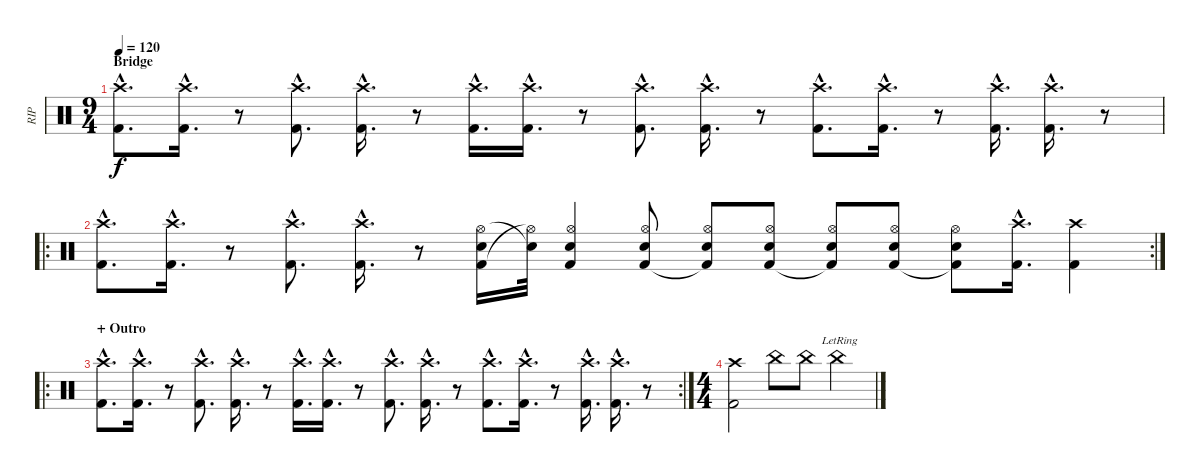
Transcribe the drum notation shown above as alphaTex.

\track ("RIP" "RIP") {instrument percussion}
\staff {score}
\articulation defaults
\ts (9 4)
\section ("" "Bridge")
\tempo 120
\clef neutral
\ks c
("Crash high (hit)"{hac} "Kick (hit) 2"{hac}).8{d dy f} ("Crash high (hit)"{hac} "Kick (hit) 2"{hac}).16{d} r.8 ("Crash high (hit)"{hac} "Kick (hit) 2"{hac}).8{d} ("Crash high (hit)"{hac} "Kick (hit) 2"{hac}).16{d} r.8 ("Crash high (hit)"{hac} "Kick (hit) 2"{hac}).16{d} ("Crash high (hit)"{hac} "Kick (hit) 2"{hac}).16{d} r.8 ("Crash high (hit)"{hac} "Kick (hit) 2"{hac}).8{d} ("Crash high (hit)"{hac} "Kick (hit) 2"{hac}).16{d} r.8 ("Crash high (hit)"{hac} "Kick (hit) 2"{hac}).8{d} ("Crash high (hit)"{hac} "Kick (hit) 2"{hac}).16{d} r.8 ("Crash high (hit)"{hac} "Kick (hit) 2"{hac}).16{d} ("Crash high (hit)"{hac} "Kick (hit) 2"{hac}).16{d} r.8 |
\ro
\rc 2
("Crash high (hit)"{hac} "Kick (hit) 2"{hac}).8{d} ("Crash high (hit)"{hac} "Kick (hit) 2"{hac}).16{d} r.8 ("Crash high (hit)"{hac} "Kick (hit) 2"{hac}).8{d} ("Crash high (hit)"{hac} "Kick (hit) 2"{hac}).16{d} r.8 ("Kick (hit) 2" "Hi-Hat (open)" "Electric Snare (hit)").16 ("Hi-Hat (open)"{t} "Snare (hit)"{t}).32 ("Kick (hit) 2" "Hi-Hat (open)" "Electric Snare (hit)").4 ("Kick (hit) 2" "Hi-Hat (open)" "Electric Snare (hit)").8 ("Kick (hit) 2"{t} "Hi-Hat (open)" "Snare (hit)").8 ("Kick (hit) 2" "Hi-Hat (open)" "Snare (hit)").8 ("Kick (hit) 2"{t} "Hi-Hat (open)" "Electric Snare (hit)").8 ("Kick (hit) 2" "Hi-Hat (open)" "Snare (hit)").8 ("Kick (hit) 2"{t} "Hi-Hat (open)" "Snare (hit)").8 ("Kick (hit) 2"{hac} "Crash high (hit)"{hac}).16{d} ("Kick (hit) 2" "Crash high (hit)").4 |
\ro
\rc 2
\section ("" "+ Outro")
("Crash high (hit)"{hac} "Kick (hit) 2"{hac}).8{d} ("Crash high (hit)"{hac} "Kick (hit) 2"{hac}).16{d} r.8 ("Crash high (hit)"{hac} "Kick (hit) 2"{hac}).8{d} ("Crash high (hit)"{hac} "Kick (hit) 2"{hac}).16{d} r.8 ("Crash high (hit)"{hac} "Kick (hit) 2"{hac}).16{d} ("Crash high (hit)"{hac} "Kick (hit) 2"{hac}).16{d} r.8 ("Crash high (hit)"{hac} "Kick (hit) 2"{hac}).8{d} ("Crash high (hit)"{hac} "Kick (hit) 2"{hac}).16{d} r.8 ("Crash high (hit)"{hac} "Kick (hit) 2"{hac}).8{d} ("Crash high (hit)"{hac} "Kick (hit) 2"{hac}).16{d} r.8 ("Crash high (hit)"{hac} "Kick (hit) 2"{hac}).16{d} ("Crash high (hit)"{hac} "Kick (hit) 2"{hac}).16{d} r.8 |
\ts (4 4)
("Crash high (hit)" "Kick (hit) 2").2 "China (hit)".8 "China (hit)".8 "China (hit)"{lr}.4
